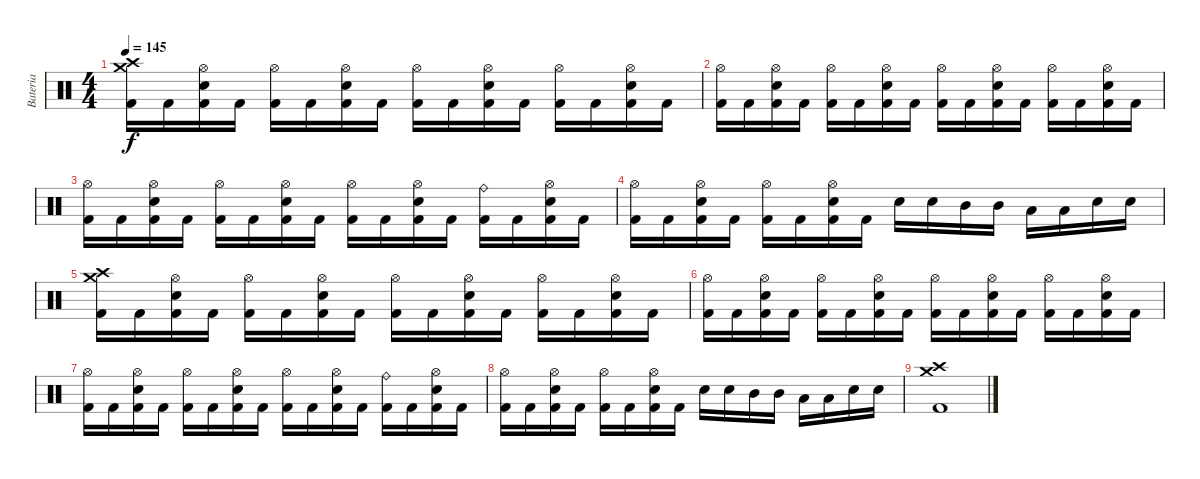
\track ("Bateria" "Bateria") {instrument percussion}
\staff {score}
\articulation defaults
\ts (4 4)
\tempo 145
\clef neutral
\ks c
("Crash high (hit)" "Crash medium (hit)" "Kick (hit) 2").16{dy f} "Kick (hit) 2".16 ("Hi-Hat (open)" "Snare (hit) 2" "Kick (hit) 2").16 "Kick (hit) 2".16 ("Hi-Hat (open)" "Kick (hit) 2").16 "Kick (hit) 2".16 ("Hi-Hat (open)" "Snare (hit) 2" "Kick (hit) 2").16 "Kick (hit) 2".16 ("Hi-Hat (open)" "Kick (hit) 2").16 "Kick (hit) 2".16 ("Hi-Hat (open)" "Snare (hit) 2" "Kick (hit) 2").16 "Kick (hit) 2".16 ("Hi-Hat (open)" "Kick (hit) 2").16 "Kick (hit) 2".16 ("Hi-Hat (open)" "Snare (hit) 2" "Kick (hit) 2").16 "Kick (hit) 2".16 |
("Hi-Hat (open)" "Kick (hit) 2").16 "Kick (hit) 2".16 ("Hi-Hat (open)" "Snare (hit) 2" "Kick (hit) 2").16 "Kick (hit) 2".16 ("Hi-Hat (open)" "Kick (hit) 2").16 "Kick (hit) 2".16 ("Hi-Hat (open)" "Snare (hit) 2" "Kick (hit) 2").16 "Kick (hit) 2".16 ("Hi-Hat (open)" "Kick (hit) 2").16 "Kick (hit) 2".16 ("Hi-Hat (open)" "Snare (hit) 2" "Kick (hit) 2").16 "Kick (hit) 2".16 ("Hi-Hat (open)" "Kick (hit) 2").16 "Kick (hit) 2".16 ("Hi-Hat (open)" "Snare (hit) 2" "Kick (hit) 2").16 "Kick (hit) 2".16 |
("Hi-Hat (open)" "Kick (hit) 2").16 "Kick (hit) 2".16 ("Hi-Hat (open)" "Snare (hit) 2" "Kick (hit) 2").16 "Kick (hit) 2".16 ("Hi-Hat (open)" "Kick (hit) 2").16 "Kick (hit) 2".16 ("Hi-Hat (open)" "Snare (hit) 2" "Kick (hit) 2").16 "Kick (hit) 2".16 ("Hi-Hat (open)" "Kick (hit) 2").16 "Kick (hit) 2".16 ("Hi-Hat (open)" "Snare (hit) 2" "Kick (hit) 2").16 "Kick (hit) 2".16 ("Ride (bell)" "Kick (hit) 2").16 "Kick (hit) 2".16 ("Hi-Hat (open)" "Snare (hit) 2" "Kick (hit) 2").16 "Kick (hit) 2".16 |
("Hi-Hat (open)" "Kick (hit) 2").16 "Kick (hit) 2".16 ("Hi-Hat (open)" "Snare (hit) 2" "Kick (hit) 2").16 "Kick (hit) 2".16 ("Hi-Hat (open)" "Kick (hit) 2").16 "Kick (hit) 2".16 ("Hi-Hat (open)" "Snare (hit) 2" "Kick (hit) 2").16 "Kick (hit) 2".16 "Snare (hit) 2".16 "Snare (hit) 2".16 "Mid Tom (hit)".16 "Mid Tom (hit)".16 "Low Tom (hit)".16 "Low Tom (hit)".16 "Snare (hit) 2".16 "Snare (hit) 2".16 |
("Crash high (hit)" "Crash medium (hit)" "Kick (hit) 2").16 "Kick (hit) 2".16 ("Hi-Hat (open)" "Snare (hit) 2" "Kick (hit) 2").16 "Kick (hit) 2".16 ("Hi-Hat (open)" "Kick (hit) 2").16 "Kick (hit) 2".16 ("Hi-Hat (open)" "Snare (hit) 2" "Kick (hit) 2").16 "Kick (hit) 2".16 ("Hi-Hat (open)" "Kick (hit) 2").16 "Kick (hit) 2".16 ("Hi-Hat (open)" "Snare (hit) 2" "Kick (hit) 2").16 "Kick (hit) 2".16 ("Hi-Hat (open)" "Kick (hit) 2").16 "Kick (hit) 2".16 ("Hi-Hat (open)" "Snare (hit) 2" "Kick (hit) 2").16 "Kick (hit) 2".16 |
("Hi-Hat (open)" "Kick (hit) 2").16 "Kick (hit) 2".16 ("Hi-Hat (open)" "Snare (hit) 2" "Kick (hit) 2").16 "Kick (hit) 2".16 ("Hi-Hat (open)" "Kick (hit) 2").16 "Kick (hit) 2".16 ("Hi-Hat (open)" "Snare (hit) 2" "Kick (hit) 2").16 "Kick (hit) 2".16 ("Hi-Hat (open)" "Kick (hit) 2").16 "Kick (hit) 2".16 ("Hi-Hat (open)" "Snare (hit) 2" "Kick (hit) 2").16 "Kick (hit) 2".16 ("Hi-Hat (open)" "Kick (hit) 2").16 "Kick (hit) 2".16 ("Hi-Hat (open)" "Snare (hit) 2" "Kick (hit) 2").16 "Kick (hit) 2".16 |
("Hi-Hat (open)" "Kick (hit) 2").16 "Kick (hit) 2".16 ("Hi-Hat (open)" "Snare (hit) 2" "Kick (hit) 2").16 "Kick (hit) 2".16 ("Hi-Hat (open)" "Kick (hit) 2").16 "Kick (hit) 2".16 ("Hi-Hat (open)" "Snare (hit) 2" "Kick (hit) 2").16 "Kick (hit) 2".16 ("Hi-Hat (open)" "Kick (hit) 2").16 "Kick (hit) 2".16 ("Hi-Hat (open)" "Snare (hit) 2" "Kick (hit) 2").16 "Kick (hit) 2".16 ("Ride (bell)" "Kick (hit) 2").16 "Kick (hit) 2".16 ("Hi-Hat (open)" "Snare (hit) 2" "Kick (hit) 2").16 "Kick (hit) 2".16 |
("Hi-Hat (open)" "Kick (hit) 2").16 "Kick (hit) 2".16 ("Hi-Hat (open)" "Snare (hit) 2" "Kick (hit) 2").16 "Kick (hit) 2".16 ("Hi-Hat (open)" "Kick (hit) 2").16 "Kick (hit) 2".16 ("Hi-Hat (open)" "Snare (hit) 2" "Kick (hit) 2").16 "Kick (hit) 2".16 "Snare (hit) 2".16 "Snare (hit) 2".16 "Mid Tom (hit)".16 "Mid Tom (hit)".16 "Low Tom (hit)".16 "Low Tom (hit)".16 "Snare (hit) 2".16 "Snare (hit) 2".16 |
("Crash medium (hit)" "Crash high (hit)" "Kick (hit) 2").1
